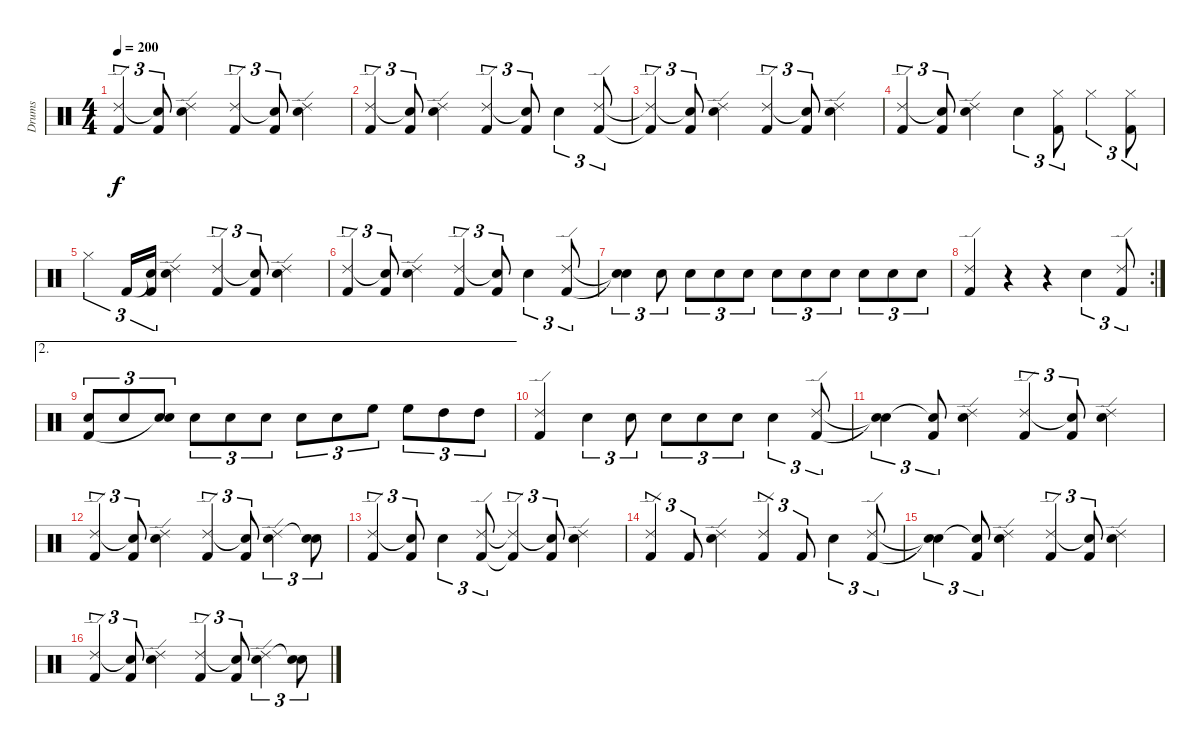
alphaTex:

\track ("Drums" "Drums") {instrument percussion}
\staff {score}
\articulation defaults
\ts (4 4)
\tempo 200
\clef neutral
\ks c
("Ride (edge) 2" "Kick (hit) 2").4{tu (3 2) dy f} ("Snare (hit)"{t} "Kick (hit) 2").8{tu (3 2)} ("Ride (edge) 2" "Snare (hit) 2").4 ("Ride (edge) 2" "Kick (hit) 2").4{tu (3 2)} ("Snare (hit)"{t} "Kick (hit) 2").8{tu (3 2)} ("Ride (edge) 2" "Snare (hit) 2").4 |
("Ride (edge) 2" "Kick (hit) 2").4{tu (3 2)} ("Snare (hit)"{t} "Kick (hit) 2").8{tu (3 2)} ("Ride (edge) 2" "Snare (hit) 2").4 ("Ride (edge) 2" "Kick (hit) 2").4{tu (3 2)} ("Snare (hit)"{t} "Kick (hit) 2").8{tu (3 2)} "Snare (hit) 2".4{tu (3 2)} ("Ride (edge) 2" "Kick (hit) 2").8{tu (3 2)} |
("Ride (edge) 2"{t} "Kick (hit) 2"{t}).4{tu (3 2)} ("Snare (hit)"{t} "Kick (hit) 2").8{tu (3 2)} ("Ride (edge) 2" "Snare (hit) 2").4 ("Ride (edge) 2" "Kick (hit) 2").4{tu (3 2)} ("Snare (hit)"{t} "Kick (hit) 2").8{tu (3 2)} ("Ride (edge) 2" "Snare (hit) 2").4 |
("Ride (edge) 2" "Kick (hit) 2").4{tu (3 2)} ("Snare (hit)"{t} "Kick (hit) 2").8{tu (3 2)} ("Ride (edge) 2" "Snare (hit) 2").4 "Snare (hit) 2".4{tu (3 2)} ("Hi-Hat (closed)" "Kick (hit) 2").8{tu (3 2)} "Hi-Hat (closed)".4{tu (3 2)} ("Hi-Hat (closed)" "Kick (hit) 2").8{tu (3 2)} |
"Hi-Hat (closed)".4{tu (3 2)} "Kick (hit) 2".16{tu (3 2)} ("Snare (hit)"{t} "Kick (hit) 2").16{tu (3 2)} ("Ride (edge) 2" "Snare (hit) 2").4 ("Ride (edge) 2" "Kick (hit) 2").4{tu (3 2)} ("Snare (hit)"{t} "Kick (hit) 2").8{tu (3 2)} ("Ride (edge) 2" "Snare (hit) 2").4 |
("Ride (edge) 2" "Kick (hit) 2").4{tu (3 2)} ("Snare (hit)"{t} "Kick (hit) 2").8{tu (3 2)} ("Ride (edge) 2" "Snare (hit) 2").4 ("Ride (edge) 2" "Kick (hit) 2").4{tu (3 2)} ("Snare (hit)"{t} "Kick (hit) 2").8{tu (3 2)} "Snare (hit) 2".4{tu (3 2)} ("Ride (edge) 2" "Kick (hit) 2").8{tu (3 2)} |
("Snare (hit)"{t} "Snare (hit)"{t}).4{tu (3 2)} "Snare (hit) 2".8{tu (3 2)} "Snare (hit) 2".8{tu (3 2)} "Snare (hit) 2".8{tu (3 2)} "Snare (hit) 2".8{tu (3 2)} "Snare (hit) 2".8{tu (3 2)} "Snare (hit) 2".8{tu (3 2)} "Snare (hit) 2".8{tu (3 2)} "Snare (hit) 2".8{tu (3 2)} "Snare (hit) 2".8{tu (3 2)} "Snare (hit) 2".8{tu (3 2)} |
\rc 2
("Ride (edge) 2" "Kick (hit) 2").4 r.4 r.4 "Snare (hit) 2".4{tu (3 2)} ("Ride (edge) 2" "Kick (hit) 2").8{tu (3 2)} |
\ae 2
("Snare (hit) 2" "Kick (hit) 2").8{tu (3 2)} "Snare (hit) 2".8{tu (3 2)} ("Snare (hit) 2" "Snare (hit)"{t}).8{tu (3 2)} "Snare (hit) 2".8{tu (3 2)} "Snare (hit) 2".8{tu (3 2)} "Snare (hit) 2".8{tu (3 2)} "Snare (hit) 2".8{tu (3 2)} "Snare (hit) 2".8{tu (3 2)} "High Floor Tom (hit)".8{tu (3 2)} "High Floor Tom (hit)".8{tu (3 2)} "High Tom (hit)".8{tu (3 2)} "High Tom (hit)".8{tu (3 2)} |
("Ride (edge) 2" "Kick (hit) 2").4 "Snare (hit) 2".4{tu (3 2)} "Snare (hit) 2".8{tu (3 2)} "Snare (hit) 2".8{tu (3 2)} "Snare (hit) 2".8{tu (3 2)} "Snare (hit) 2".8{tu (3 2)} "Snare (hit) 2".4{tu (3 2)} ("Ride (edge) 2" "Kick (hit) 2").8{tu (3 2)} |
("Snare (hit)"{t} "Snare (hit)"{t}).4{tu (3 2)} ("Snare (hit)"{t} "Kick (hit) 2").8{tu (3 2)} ("Ride (edge) 2" "Snare (hit) 2").4 ("Ride (edge) 2" "Kick (hit) 2").4{tu (3 2)} ("Snare (hit)"{t} "Kick (hit) 2").8{tu (3 2)} ("Ride (edge) 2" "Snare (hit) 2").4 |
("Ride (edge) 2" "Kick (hit) 2").4{tu (3 2)} ("Snare (hit)"{t} "Kick (hit) 2").8{tu (3 2)} ("Ride (edge) 2" "Snare (hit) 2").4 ("Ride (edge) 2" "Kick (hit) 2").4{tu (3 2)} ("Snare (hit)"{t} "Kick (hit) 2").8{tu (3 2)} ("Ride (edge) 2" "Snare (hit) 2").4{tu (3 2)} ("Snare (hit)"{t} "Snare (hit) 2").8{tu (3 2)} |
("Ride (edge) 2" "Kick (hit) 2").4{tu (3 2)} ("Snare (hit)"{t} "Kick (hit) 2").8{tu (3 2)} "Snare (hit) 2".4{tu (3 2)} ("Ride (edge) 2" "Kick (hit) 2").8{tu (3 2)} ("Ride (edge) 2"{t} "Kick (hit) 2"{t}).4{tu (3 2)} ("Snare (hit)"{t} "Kick (hit) 2").8{tu (3 2)} ("Ride (edge) 2" "Snare (hit) 2").4 |
("Ride (edge) 2" "Kick (hit) 2").4{tu (3 2)} "Kick (hit) 2".8{tu (3 2)} ("Ride (edge) 2" "Snare (hit) 2").4 ("Ride (edge) 2" "Kick (hit) 2").4{tu (3 2)} "Kick (hit) 2".8{tu (3 2)} "Snare (hit) 2".4{tu (3 2)} ("Ride (edge) 2" "Kick (hit) 2").8{tu (3 2)} |
("Snare (hit)"{t} "Snare (hit)"{t}).4{tu (3 2)} ("Snare (hit)"{t} "Kick (hit) 2").8{tu (3 2)} ("Ride (edge) 2" "Snare (hit) 2").4 ("Ride (edge) 2" "Kick (hit) 2").4{tu (3 2)} ("Snare (hit)"{t} "Kick (hit) 2").8{tu (3 2)} ("Ride (edge) 2" "Snare (hit) 2").4 |
("Ride (edge) 2" "Kick (hit) 2").4{tu (3 2)} ("Snare (hit)"{t} "Kick (hit) 2").8{tu (3 2)} ("Ride (edge) 2" "Snare (hit) 2").4 ("Ride (edge) 2" "Kick (hit) 2").4{tu (3 2)} ("Snare (hit)"{t} "Kick (hit) 2").8{tu (3 2)} ("Ride (edge) 2" "Snare (hit) 2").4{tu (3 2)} ("Snare (hit)"{t} "Snare (hit) 2").8{tu (3 2)}
